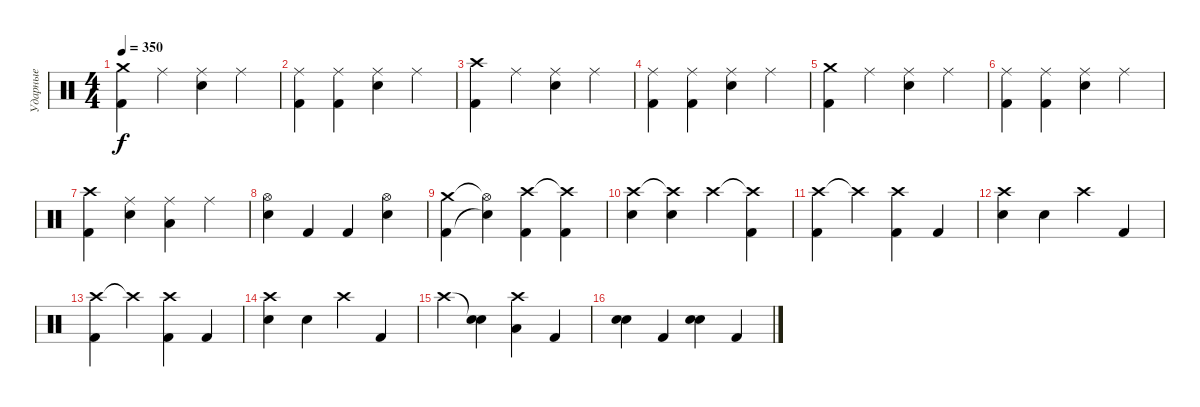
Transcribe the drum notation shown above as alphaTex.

\track ("Ударные" "Ударные") {instrument percussion}
\staff {score}
\articulation defaults
\ts (4 4)
\tempo 350
\clef neutral
\ks c
("Crash medium (hit)" "Kick (hit) 2").4{dy f} "Ride (middle)".4 ("Ride (middle)" "Electric Snare (hit)").4 "Ride (middle)".4 |
("Ride (middle)" "Kick (hit) 2").4 ("Ride (middle)" "Kick (hit) 2").4 ("Ride (middle)" "Electric Snare (hit)").4 "Ride (middle)".4 |
("Crash high (hit)" "Kick (hit) 2").4 "Ride (middle)".4 ("Ride (middle)" "Electric Snare (hit)").4 "Ride (middle)".4 |
("Ride (middle)" "Kick (hit) 2").4 ("Ride (middle)" "Kick (hit) 2").4 ("Ride (middle)" "Electric Snare (hit)").4 "Ride (middle)".4 |
("Crash medium (hit)" "Kick (hit) 2").4 "Ride (middle)".4 ("Ride (middle)" "Electric Snare (hit)").4 "Ride (middle)".4 |
("Ride (middle)" "Kick (hit) 2").4 ("Ride (middle)" "Kick (hit) 2").4 ("Ride (middle)" "Electric Snare (hit)").4 "Ride (middle)".4 |
("Crash high (hit)" "Kick (hit) 2").4 ("Ride (middle)" "Electric Snare (hit)").4 ("Ride (middle)" "Low Tom (hit)").4 "Ride (middle)".4 |
("Hi-Hat (open)" "Electric Snare (hit)").4 "Kick (hit) 2".4 "Kick (hit) 2".4 ("Hi-Hat (open)" "Electric Snare (hit)").4 |
("Crash medium (hit)" "Kick (hit) 2").4 ("Hi-Hat (open)"{t} "Snare (hit)"{t}).4 ("Crash high (hit)" "Kick (hit) 2").4 ("Crash high (hit)"{t} "Kick (hit) 2").4 |
("Crash high (hit)" "Electric Snare (hit)").4 ("Crash high (hit)"{t} "Electric Snare (hit)").4 "Crash high (hit)".4 ("Crash high (hit)"{t} "Kick (hit) 2").4 |
("Crash high (hit)" "Kick (hit) 2").4 "Crash high (hit)"{t}.4 ("Crash high (hit)" "Kick (hit) 2").4 "Kick (hit) 2".4 |
("Crash high (hit)" "Electric Snare (hit)").4 "Electric Snare (hit)".4 "Crash high (hit)".4 "Kick (hit) 2".4 |
("Crash high (hit)" "Kick (hit) 2").4 "Crash high (hit)"{t}.4 ("Crash high (hit)" "Kick (hit) 2").4 "Kick (hit) 2".4 |
("Crash high (hit)" "Electric Snare (hit)").4 "Electric Snare (hit)".4 "Crash high (hit)".4 "Kick (hit) 2".4 |
"Crash high (hit)".4 ("Snare (hit)"{t} "Electric Snare (hit)").4 ("Crash high (hit)" "Low Tom (hit)").4 "Kick (hit) 2".4 |
("Electric Snare (hit)" "Electric Snare (hit)").4 "Kick (hit) 2".4 ("Electric Snare (hit)" "Electric Snare (hit)").4 "Kick (hit) 2".4
